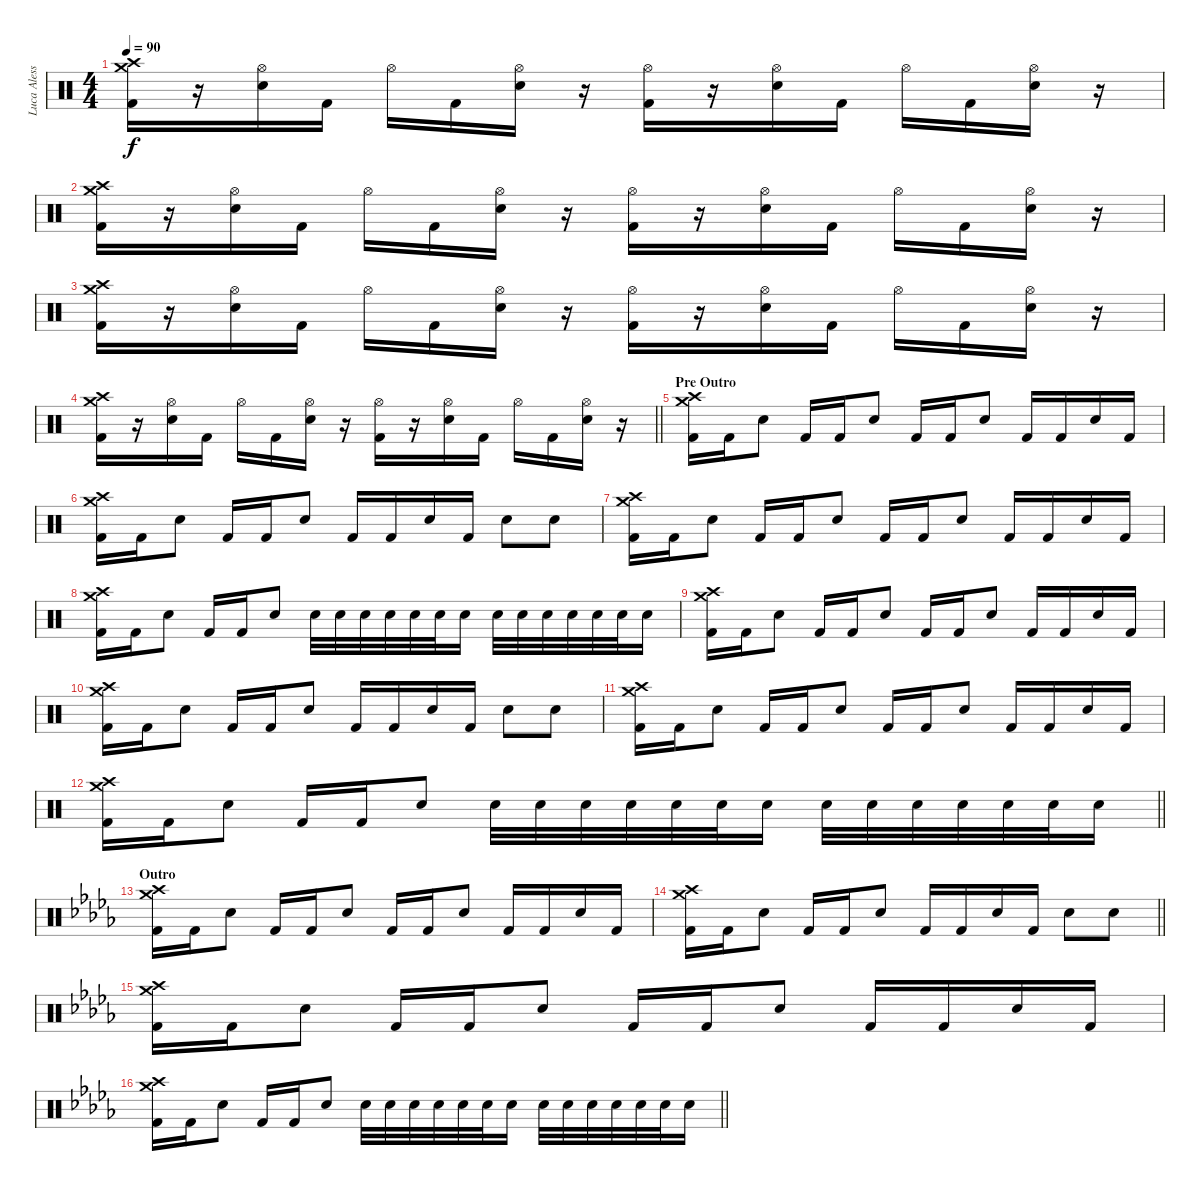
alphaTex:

\track ("Luca Alessandrelli (Drums)" "Luca Aless") {instrument percussion}
\staff {score}
\articulation defaults
\ts (4 4)
\tempo 90
\clef neutral
\ks c
("Crash high (hit)" "Crash medium (hit)" "Kick (hit) 2").16{dy f} r.16 ("Hi-Hat (open)" "Electric Snare (hit)").16 "Kick (hit) 2".16 "Hi-Hat (open)".16 "Kick (hit) 2".16 ("Hi-Hat (open)" "Electric Snare (hit)").16 r.16 ("Hi-Hat (open)" "Kick (hit) 2").16 r.16 ("Hi-Hat (open)" "Electric Snare (hit)").16 "Kick (hit) 2".16 "Hi-Hat (open)".16 "Kick (hit) 2".16 ("Hi-Hat (open)" "Electric Snare (hit)").16 r.16 |
("Crash high (hit)" "Crash medium (hit)" "Kick (hit) 2").16 r.16 ("Hi-Hat (open)" "Electric Snare (hit)").16 "Kick (hit) 2".16 "Hi-Hat (open)".16 "Kick (hit) 2".16 ("Hi-Hat (open)" "Electric Snare (hit)").16 r.16 ("Hi-Hat (open)" "Kick (hit) 2").16 r.16 ("Hi-Hat (open)" "Electric Snare (hit)").16 "Kick (hit) 2".16 "Hi-Hat (open)".16 "Kick (hit) 2".16 ("Hi-Hat (open)" "Electric Snare (hit)").16 r.16 |
("Crash high (hit)" "Crash medium (hit)" "Kick (hit) 2").16 r.16 ("Hi-Hat (open)" "Electric Snare (hit)").16 "Kick (hit) 2".16 "Hi-Hat (open)".16 "Kick (hit) 2".16 ("Hi-Hat (open)" "Electric Snare (hit)").16 r.16 ("Hi-Hat (open)" "Kick (hit) 2").16 r.16 ("Hi-Hat (open)" "Electric Snare (hit)").16 "Kick (hit) 2".16 "Hi-Hat (open)".16 "Kick (hit) 2".16 ("Hi-Hat (open)" "Electric Snare (hit)").16 r.16 |
\barLineRight lightlight
("Crash high (hit)" "Crash medium (hit)" "Kick (hit) 2").16 r.16 ("Hi-Hat (open)" "Electric Snare (hit)").16 "Kick (hit) 2".16 "Hi-Hat (open)".16 "Kick (hit) 2".16 ("Hi-Hat (open)" "Electric Snare (hit)").16 r.16 ("Hi-Hat (open)" "Kick (hit) 2").16 r.16 ("Hi-Hat (open)" "Electric Snare (hit)").16 "Kick (hit) 2".16 "Hi-Hat (open)".16 "Kick (hit) 2".16 ("Hi-Hat (open)" "Electric Snare (hit)").16 r.16 |
\section ("" "Pre Outro")
("Crash high (hit)" "Crash medium (hit)" "Kick (hit) 2").16 "Kick (hit) 2".16 "Snare (hit) 2".8 "Kick (hit) 2".16 "Kick (hit) 2".16 "Snare (hit) 2".8 "Kick (hit) 2".16 "Kick (hit) 2".16 "Snare (hit) 2".8 "Kick (hit) 2".16 "Kick (hit) 2".16 "Snare (hit) 2".16 "Kick (hit) 2".16 |
("Crash high (hit)" "Crash medium (hit)" "Kick (hit) 2").16 "Kick (hit) 2".16 "Snare (hit) 2".8 "Kick (hit) 2".16 "Kick (hit) 2".16 "Snare (hit) 2".8 "Kick (hit) 2".16 "Kick (hit) 2".16 "Snare (hit) 2".16 "Kick (hit) 2".16 "Snare (hit) 2".8 "Snare (hit) 2".8 |
("Crash high (hit)" "Crash medium (hit)" "Kick (hit) 2").16 "Kick (hit) 2".16 "Snare (hit) 2".8 "Kick (hit) 2".16 "Kick (hit) 2".16 "Snare (hit) 2".8 "Kick (hit) 2".16 "Kick (hit) 2".16 "Snare (hit) 2".8 "Kick (hit) 2".16 "Kick (hit) 2".16 "Snare (hit) 2".16 "Kick (hit) 2".16 |
("Crash high (hit)" "Crash medium (hit)" "Kick (hit) 2").16 "Kick (hit) 2".16 "Snare (hit) 2".8 "Kick (hit) 2".16 "Kick (hit) 2".16 "Snare (hit) 2".8 "Snare (hit) 2".32 "Snare (hit) 2".32 "Snare (hit) 2".32 "Snare (hit) 2".32 "Snare (hit) 2".32 "Snare (hit) 2".32 "Snare (hit) 2".16 "Snare (hit) 2".32 "Snare (hit) 2".32 "Snare (hit) 2".32 "Snare (hit) 2".32 "Snare (hit) 2".32 "Snare (hit) 2".32 "Snare (hit) 2".16 |
("Crash high (hit)" "Crash medium (hit)" "Kick (hit) 2").16 "Kick (hit) 2".16 "Snare (hit) 2".8 "Kick (hit) 2".16 "Kick (hit) 2".16 "Snare (hit) 2".8 "Kick (hit) 2".16 "Kick (hit) 2".16 "Snare (hit) 2".8 "Kick (hit) 2".16 "Kick (hit) 2".16 "Snare (hit) 2".16 "Kick (hit) 2".16 |
("Crash high (hit)" "Crash medium (hit)" "Kick (hit) 2").16 "Kick (hit) 2".16 "Snare (hit) 2".8 "Kick (hit) 2".16 "Kick (hit) 2".16 "Snare (hit) 2".8 "Kick (hit) 2".16 "Kick (hit) 2".16 "Snare (hit) 2".16 "Kick (hit) 2".16 "Snare (hit) 2".8 "Snare (hit) 2".8 |
("Crash high (hit)" "Crash medium (hit)" "Kick (hit) 2").16 "Kick (hit) 2".16 "Snare (hit) 2".8 "Kick (hit) 2".16 "Kick (hit) 2".16 "Snare (hit) 2".8 "Kick (hit) 2".16 "Kick (hit) 2".16 "Snare (hit) 2".8 "Kick (hit) 2".16 "Kick (hit) 2".16 "Snare (hit) 2".16 "Kick (hit) 2".16 |
\barLineRight lightlight
("Crash high (hit)" "Crash medium (hit)" "Kick (hit) 2").16 "Kick (hit) 2".16 "Snare (hit) 2".8 "Kick (hit) 2".16 "Kick (hit) 2".16 "Snare (hit) 2".8 "Snare (hit) 2".32 "Snare (hit) 2".32 "Snare (hit) 2".32 "Snare (hit) 2".32 "Snare (hit) 2".32 "Snare (hit) 2".32 "Snare (hit) 2".16 "Snare (hit) 2".32 "Snare (hit) 2".32 "Snare (hit) 2".32 "Snare (hit) 2".32 "Snare (hit) 2".32 "Snare (hit) 2".32 "Snare (hit) 2".16 |
\section ("" "Outro")
\ks db
("Crash high (hit)" "Crash medium (hit)" "Kick (hit) 2").16 "Kick (hit) 2".16 "Snare (hit) 2".8 "Kick (hit) 2".16 "Kick (hit) 2".16 "Snare (hit) 2".8 "Kick (hit) 2".16 "Kick (hit) 2".16 "Snare (hit) 2".8 "Kick (hit) 2".16 "Kick (hit) 2".16 "Snare (hit) 2".16 "Kick (hit) 2".16 |
\barLineRight lightlight
("Crash high (hit)" "Crash medium (hit)" "Kick (hit) 2").16 "Kick (hit) 2".16 "Snare (hit) 2".8 "Kick (hit) 2".16 "Kick (hit) 2".16 "Snare (hit) 2".8 "Kick (hit) 2".16 "Kick (hit) 2".16 "Snare (hit) 2".16 "Kick (hit) 2".16 "Snare (hit) 2".8 "Snare (hit) 2".8 |
("Crash high (hit)" "Crash medium (hit)" "Kick (hit) 2").16 "Kick (hit) 2".16 "Snare (hit) 2".8 "Kick (hit) 2".16 "Kick (hit) 2".16 "Snare (hit) 2".8 "Kick (hit) 2".16 "Kick (hit) 2".16 "Snare (hit) 2".8 "Kick (hit) 2".16 "Kick (hit) 2".16 "Snare (hit) 2".16 "Kick (hit) 2".16 |
\barLineRight lightlight
("Crash high (hit)" "Crash medium (hit)" "Kick (hit) 2").16 "Kick (hit) 2".16 "Snare (hit) 2".8 "Kick (hit) 2".16 "Kick (hit) 2".16 "Snare (hit) 2".8 "Snare (hit) 2".32 "Snare (hit) 2".32 "Snare (hit) 2".32 "Snare (hit) 2".32 "Snare (hit) 2".32 "Snare (hit) 2".32 "Snare (hit) 2".16 "Snare (hit) 2".32 "Snare (hit) 2".32 "Snare (hit) 2".32 "Snare (hit) 2".32 "Snare (hit) 2".32 "Snare (hit) 2".32 "Snare (hit) 2".16
